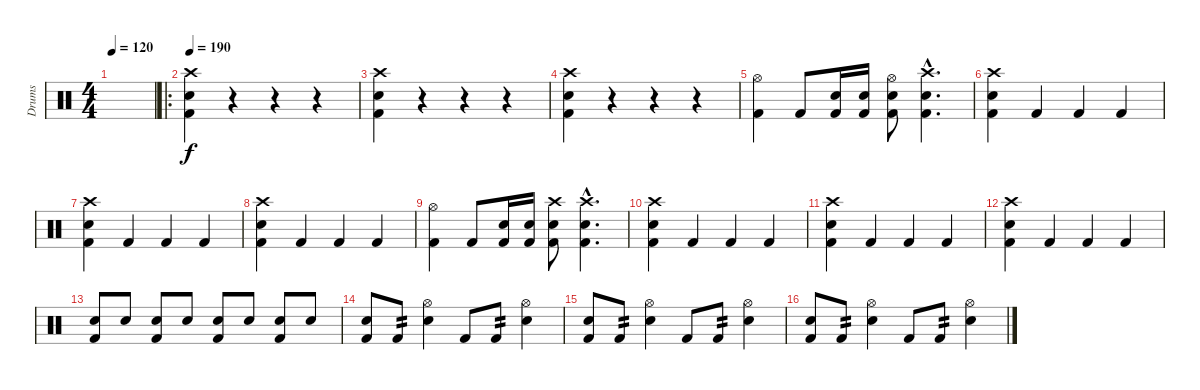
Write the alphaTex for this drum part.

\track ("Drums" "Drums") {instrument percussion}
\staff {score}
\articulation defaults
\ts (4 4)
\tempo 120
\clef neutral
\ks c
|
\ro
\tempo 190
("Crash high (hit)" "Snare (hit) 2" "Kick (hit) 2").4 r.4 r.4 r.4 |
("Crash high (hit)" "Snare (hit) 2" "Kick (hit) 2").4 r.4 r.4 r.4 |
("Crash high (hit)" "Snare (hit) 2" "Kick (hit) 2").4 r.4 r.4 r.4 |
("Hi-Hat (open)" "Kick (hit) 2").4 "Kick (hit) 2".8 ("Snare (hit) 2" "Kick (hit) 2").16 ("Snare (hit) 2" "Kick (hit) 2").16 ("Hi-Hat (open)" "Snare (hit) 2" "Kick (hit) 2").8 ("Crash high (hit)"{hac} "Snare (hit) 2"{hac} "Kick (hit) 2"{hac}).4{d} |
("Crash high (hit)" "Snare (hit) 2" "Kick (hit) 2").4 "Kick (hit) 2".4 "Kick (hit) 2".4 "Kick (hit) 2".4 |
("Crash high (hit)" "Snare (hit) 2" "Kick (hit) 2").4 "Kick (hit) 2".4 "Kick (hit) 2".4 "Kick (hit) 2".4 |
("Crash high (hit)" "Snare (hit) 2" "Kick (hit) 2").4 "Kick (hit) 2".4 "Kick (hit) 2".4 "Kick (hit) 2".4 |
("Hi-Hat (open)" "Kick (hit) 2").4 "Kick (hit) 2".8 ("Snare (hit) 2" "Kick (hit) 2").16 ("Snare (hit) 2" "Kick (hit) 2").16 ("Crash high (hit)" "Snare (hit) 2" "Kick (hit) 2").8 ("Crash high (hit)"{hac} "Snare (hit) 2"{hac} "Kick (hit) 2"{hac}).4{d} |
("Crash high (hit)" "Snare (hit) 2" "Kick (hit) 2").4 "Kick (hit) 2".4 "Kick (hit) 2".4 "Kick (hit) 2".4 |
("Crash high (hit)" "Snare (hit) 2" "Kick (hit) 2").4 "Kick (hit) 2".4 "Kick (hit) 2".4 "Kick (hit) 2".4 |
("Crash high (hit)" "Snare (hit) 2" "Kick (hit) 2").4 "Kick (hit) 2".4 "Kick (hit) 2".4 "Kick (hit) 2".4 |
("Snare (hit) 2" "Kick (hit) 2").8 "Snare (hit) 2".8 ("Snare (hit) 2" "Kick (hit) 2").8 "Snare (hit) 2".8 ("Snare (hit) 2" "Kick (hit) 2").8 "Snare (hit) 2".8 ("Snare (hit) 2" "Kick (hit) 2").8 "Snare (hit) 2".8 |
("Snare (hit) 2" "Kick (hit) 2").8 "Kick (hit) 2".8{tp 2} ("Hi-Hat (open)" "Snare (hit) 2").4 "Kick (hit) 2".8 "Kick (hit) 2".8{tp 2} ("Hi-Hat (open)" "Snare (hit) 2").4 |
("Snare (hit) 2" "Kick (hit) 2").8 "Kick (hit) 2".8{tp 2} ("Hi-Hat (open)" "Snare (hit) 2").4 "Kick (hit) 2".8 "Kick (hit) 2".8{tp 2} ("Hi-Hat (open)" "Snare (hit) 2").4 |
("Snare (hit) 2" "Kick (hit) 2").8 "Kick (hit) 2".8{tp 2} ("Hi-Hat (open)" "Snare (hit) 2").4 "Kick (hit) 2".8 "Kick (hit) 2".8{tp 2} ("Hi-Hat (open)" "Snare (hit) 2").4
